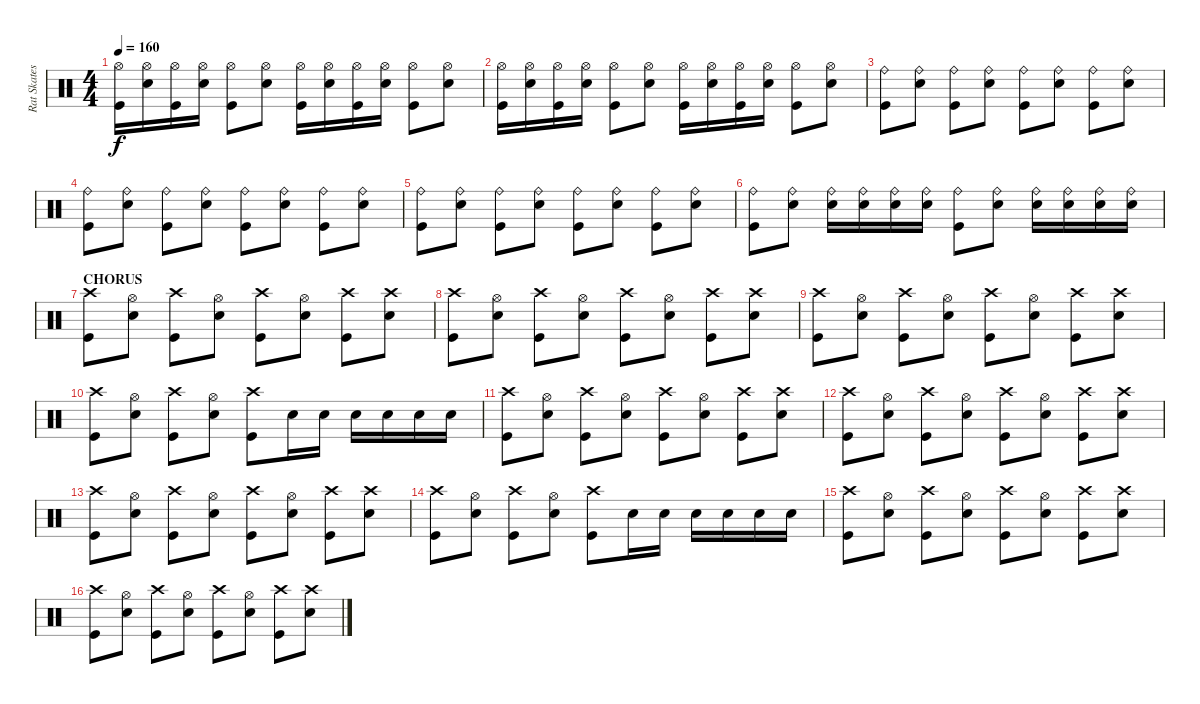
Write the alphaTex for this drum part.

\track ("Rat Skates" "Rat Skates") {instrument percussion}
\staff {score}
\articulation defaults
\ts (4 4)
\tempo 160
\clef neutral
\ks c
("Hi-Hat (open)" "Kick (hit)").16{dy f} ("Hi-Hat (open)" "Snare (hit) 2").16 ("Hi-Hat (open)" "Kick (hit)").16 ("Hi-Hat (open)" "Snare (hit) 2").16 ("Hi-Hat (open)" "Kick (hit)").8 ("Hi-Hat (open)" "Snare (hit) 2").8 ("Hi-Hat (open)" "Kick (hit)").16 ("Hi-Hat (open)" "Snare (hit) 2").16 ("Hi-Hat (open)" "Kick (hit)").16 ("Hi-Hat (open)" "Snare (hit) 2").16 ("Hi-Hat (open)" "Kick (hit)").8 ("Hi-Hat (open)" "Snare (hit) 2").8 |
("Hi-Hat (open)" "Kick (hit)").16 ("Hi-Hat (open)" "Snare (hit) 2").16 ("Hi-Hat (open)" "Kick (hit)").16 ("Hi-Hat (open)" "Snare (hit) 2").16 ("Hi-Hat (open)" "Kick (hit)").8 ("Hi-Hat (open)" "Snare (hit) 2").8 ("Hi-Hat (open)" "Kick (hit)").16 ("Hi-Hat (open)" "Snare (hit) 2").16 ("Hi-Hat (open)" "Kick (hit)").16 ("Hi-Hat (open)" "Snare (hit) 2").16 ("Hi-Hat (open)" "Kick (hit)").8 ("Hi-Hat (open)" "Snare (hit) 2").8 |
("Ride (bell)" "Kick (hit)").8 ("Ride (bell)" "Snare (hit) 2").8 ("Ride (bell)" "Kick (hit)").8 ("Ride (bell)" "Snare (hit) 2").8 ("Ride (bell)" "Kick (hit)").8 ("Ride (bell)" "Snare (hit) 2").8 ("Ride (bell)" "Kick (hit)").8 ("Ride (bell)" "Snare (hit) 2").8 |
("Ride (bell)" "Kick (hit)").8 ("Ride (bell)" "Snare (hit) 2").8 ("Ride (bell)" "Kick (hit)").8 ("Ride (bell)" "Snare (hit) 2").8 ("Ride (bell)" "Kick (hit)").8 ("Ride (bell)" "Snare (hit) 2").8 ("Ride (bell)" "Kick (hit)").8 ("Ride (bell)" "Snare (hit) 2").8 |
("Ride (bell)" "Kick (hit)").8 ("Ride (bell)" "Snare (hit) 2").8 ("Ride (bell)" "Kick (hit)").8 ("Ride (bell)" "Snare (hit) 2").8 ("Ride (bell)" "Kick (hit)").8 ("Ride (bell)" "Snare (hit) 2").8 ("Ride (bell)" "Kick (hit)").8 ("Ride (bell)" "Snare (hit) 2").8 |
("Ride (bell)" "Kick (hit)").8 ("Ride (bell)" "Snare (hit) 2").8 ("Ride (bell)" "Snare (hit) 2").16 ("Ride (bell)" "Snare (hit) 2").16 ("Ride (bell)" "Snare (hit) 2").16 ("Ride (bell)" "Snare (hit) 2").16 ("Ride (bell)" "Kick (hit)").8 ("Ride (bell)" "Snare (hit) 2").8 ("Ride (bell)" "Snare (hit) 2").16 ("Ride (bell)" "Snare (hit) 2").16 ("Ride (bell)" "Snare (hit) 2").16 ("Ride (bell)" "Snare (hit) 2").16 |
\section ("" "CHORUS")
("Crash high (hit)" "Kick (hit)").8 ("Hi-Hat (open)" "Snare (hit) 2").8 ("Crash high (hit)" "Kick (hit)").8 ("Hi-Hat (open)" "Snare (hit) 2").8 ("Crash high (hit)" "Kick (hit)").8 ("Hi-Hat (open)" "Snare (hit) 2").8 ("Crash high (hit)" "Kick (hit)").8 ("Crash high (hit)" "Snare (hit) 2").8 |
("Crash high (hit)" "Kick (hit)").8 ("Hi-Hat (open)" "Snare (hit) 2").8 ("Crash high (hit)" "Kick (hit)").8 ("Hi-Hat (open)" "Snare (hit) 2").8 ("Crash high (hit)" "Kick (hit)").8 ("Hi-Hat (open)" "Snare (hit) 2").8 ("Crash high (hit)" "Kick (hit)").8 ("Crash high (hit)" "Snare (hit) 2").8 |
("Crash high (hit)" "Kick (hit)").8 ("Hi-Hat (open)" "Snare (hit) 2").8 ("Crash high (hit)" "Kick (hit)").8 ("Hi-Hat (open)" "Snare (hit) 2").8 ("Crash high (hit)" "Kick (hit)").8 ("Hi-Hat (open)" "Snare (hit) 2").8 ("Crash high (hit)" "Kick (hit)").8 ("Crash high (hit)" "Snare (hit) 2").8 |
("Crash high (hit)" "Kick (hit)").8 ("Hi-Hat (open)" "Snare (hit) 2").8 ("Crash high (hit)" "Kick (hit)").8 ("Hi-Hat (open)" "Snare (hit) 2").8 ("Crash high (hit)" "Kick (hit)").8 "Snare (hit) 2".16 "Snare (hit) 2".16 "Snare (hit) 2".16 "Snare (hit) 2".16 "Snare (hit) 2".16 "Snare (hit) 2".16 |
("Crash high (hit)" "Kick (hit)").8 ("Hi-Hat (open)" "Snare (hit) 2").8 ("Crash high (hit)" "Kick (hit)").8 ("Hi-Hat (open)" "Snare (hit) 2").8 ("Crash high (hit)" "Kick (hit)").8 ("Hi-Hat (open)" "Snare (hit) 2").8 ("Crash high (hit)" "Kick (hit)").8 ("Crash high (hit)" "Snare (hit) 2").8 |
("Crash high (hit)" "Kick (hit)").8 ("Hi-Hat (open)" "Snare (hit) 2").8 ("Crash high (hit)" "Kick (hit)").8 ("Hi-Hat (open)" "Snare (hit) 2").8 ("Crash high (hit)" "Kick (hit)").8 ("Hi-Hat (open)" "Snare (hit) 2").8 ("Crash high (hit)" "Kick (hit)").8 ("Crash high (hit)" "Snare (hit) 2").8 |
("Crash high (hit)" "Kick (hit)").8 ("Hi-Hat (open)" "Snare (hit) 2").8 ("Crash high (hit)" "Kick (hit)").8 ("Hi-Hat (open)" "Snare (hit) 2").8 ("Crash high (hit)" "Kick (hit)").8 ("Hi-Hat (open)" "Snare (hit) 2").8 ("Crash high (hit)" "Kick (hit)").8 ("Crash high (hit)" "Snare (hit) 2").8 |
("Crash high (hit)" "Kick (hit)").8 ("Hi-Hat (open)" "Snare (hit) 2").8 ("Crash high (hit)" "Kick (hit)").8 ("Hi-Hat (open)" "Snare (hit) 2").8 ("Crash high (hit)" "Kick (hit)").8 "Snare (hit) 2".16 "Snare (hit) 2".16 "Snare (hit) 2".16 "Snare (hit) 2".16 "Snare (hit) 2".16 "Snare (hit) 2".16 |
("Crash high (hit)" "Kick (hit)").8 ("Hi-Hat (open)" "Snare (hit) 2").8 ("Crash high (hit)" "Kick (hit)").8 ("Hi-Hat (open)" "Snare (hit) 2").8 ("Crash high (hit)" "Kick (hit)").8 ("Hi-Hat (open)" "Snare (hit) 2").8 ("Crash high (hit)" "Kick (hit)").8 ("Crash high (hit)" "Snare (hit) 2").8 |
("Crash high (hit)" "Kick (hit)").8 ("Hi-Hat (open)" "Snare (hit) 2").8 ("Crash high (hit)" "Kick (hit)").8 ("Hi-Hat (open)" "Snare (hit) 2").8 ("Crash high (hit)" "Kick (hit)").8 ("Hi-Hat (open)" "Snare (hit) 2").8 ("Crash high (hit)" "Kick (hit)").8 ("Crash high (hit)" "Snare (hit) 2").8
